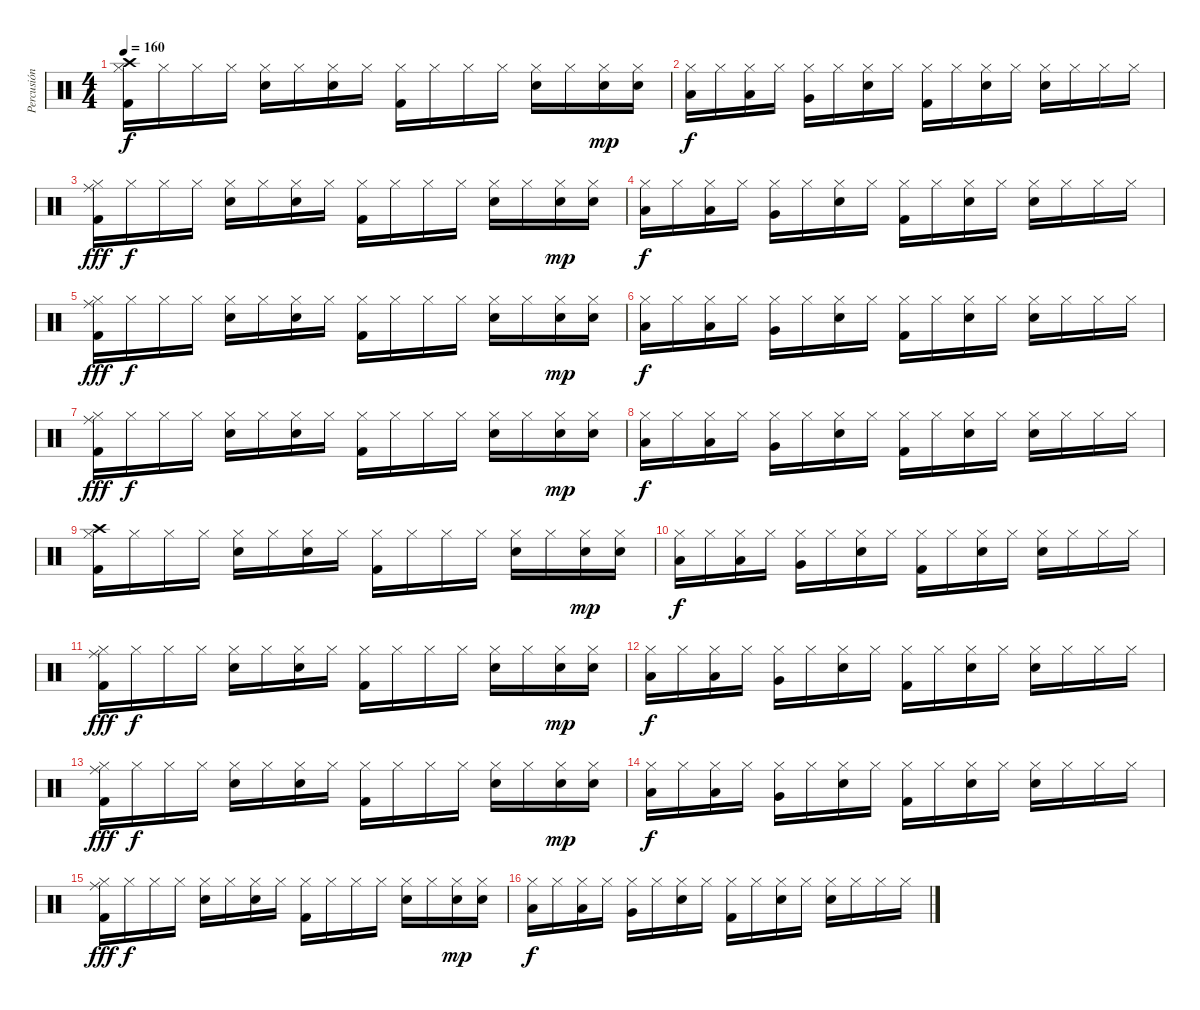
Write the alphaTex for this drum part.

\track ("Percusión" "Percusión") {instrument percussion}
\staff {score}
\articulation defaults
\ts (4 4)
\tempo 160
\clef neutral
\ks c
("Crash high (hit)" "Hi-Hat (closed)" "Kick (hit) 2").16{dy f} "Hi-Hat (closed)".16 "Hi-Hat (closed)".16 "Hi-Hat (closed)".16 ("Hi-Hat (closed)" "Snare (hit) 2").16 "Hi-Hat (closed)".16 ("Hi-Hat (closed)" "Snare (hit) 2").16 "Hi-Hat (closed)".16 ("Hi-Hat (closed)" "Kick (hit) 2").16 "Hi-Hat (closed)".16 "Hi-Hat (closed)".16 "Hi-Hat (closed)".16 ("Hi-Hat (closed)" "Snare (hit) 2").16 "Hi-Hat (closed)".16 ("Hi-Hat (closed)" "Snare (hit) 2").16{dy mp} ("Hi-Hat (closed)" "Snare (hit) 2").16 |
("Hi-Hat (closed)" "Low Floor Tom (hit)").16{dy f} "Hi-Hat (closed)".16 ("Hi-Hat (closed)" "Low Tom (hit)").16 "Hi-Hat (closed)".16 ("Hi-Hat (closed)" "Very Low Tom (hit)").16 "Hi-Hat (closed)".16 ("Hi-Hat (closed)" "Snare (hit) 2").16 "Hi-Hat (closed)".16 ("Hi-Hat (closed)" "Kick (hit) 2").16 "Hi-Hat (closed)".16 ("Hi-Hat (closed)" "Snare (hit) 2").16 "Hi-Hat (closed)".16 ("Hi-Hat (closed)" "Snare (hit) 2").16 "Hi-Hat (closed)".16 "Hi-Hat (closed)".16 "Hi-Hat (closed)".16 |
("Ride (middle)" "Hi-Hat (closed)" "Kick (hit) 2").16{dy fff} "Hi-Hat (closed)".16{dy f} "Hi-Hat (closed)".16 "Hi-Hat (closed)".16 ("Hi-Hat (closed)" "Snare (hit) 2").16 "Hi-Hat (closed)".16 ("Hi-Hat (closed)" "Snare (hit) 2").16 "Hi-Hat (closed)".16 ("Hi-Hat (closed)" "Kick (hit) 2").16 "Hi-Hat (closed)".16 "Hi-Hat (closed)".16 "Hi-Hat (closed)".16 ("Hi-Hat (closed)" "Snare (hit) 2").16 "Hi-Hat (closed)".16 ("Hi-Hat (closed)" "Snare (hit) 2").16{dy mp} ("Hi-Hat (closed)" "Snare (hit) 2").16 |
("Hi-Hat (closed)" "Low Floor Tom (hit)").16{dy f} "Hi-Hat (closed)".16 ("Hi-Hat (closed)" "Low Tom (hit)").16 "Hi-Hat (closed)".16 ("Hi-Hat (closed)" "Very Low Tom (hit)").16 "Hi-Hat (closed)".16 ("Hi-Hat (closed)" "Snare (hit) 2").16 "Hi-Hat (closed)".16 ("Hi-Hat (closed)" "Kick (hit) 2").16 "Hi-Hat (closed)".16 ("Hi-Hat (closed)" "Snare (hit) 2").16 "Hi-Hat (closed)".16 ("Hi-Hat (closed)" "Snare (hit) 2").16 "Hi-Hat (closed)".16 "Hi-Hat (closed)".16 "Hi-Hat (closed)".16 |
("Ride (middle)" "Hi-Hat (closed)" "Kick (hit) 2").16{dy fff} "Hi-Hat (closed)".16{dy f} "Hi-Hat (closed)".16 "Hi-Hat (closed)".16 ("Hi-Hat (closed)" "Snare (hit) 2").16 "Hi-Hat (closed)".16 ("Hi-Hat (closed)" "Snare (hit) 2").16 "Hi-Hat (closed)".16 ("Hi-Hat (closed)" "Kick (hit) 2").16 "Hi-Hat (closed)".16 "Hi-Hat (closed)".16 "Hi-Hat (closed)".16 ("Hi-Hat (closed)" "Snare (hit) 2").16 "Hi-Hat (closed)".16 ("Hi-Hat (closed)" "Snare (hit) 2").16{dy mp} ("Hi-Hat (closed)" "Snare (hit) 2").16 |
("Hi-Hat (closed)" "Low Floor Tom (hit)").16{dy f} "Hi-Hat (closed)".16 ("Hi-Hat (closed)" "Low Tom (hit)").16 "Hi-Hat (closed)".16 ("Hi-Hat (closed)" "Very Low Tom (hit)").16 "Hi-Hat (closed)".16 ("Hi-Hat (closed)" "Snare (hit) 2").16 "Hi-Hat (closed)".16 ("Hi-Hat (closed)" "Kick (hit) 2").16 "Hi-Hat (closed)".16 ("Hi-Hat (closed)" "Snare (hit) 2").16 "Hi-Hat (closed)".16 ("Hi-Hat (closed)" "Snare (hit) 2").16 "Hi-Hat (closed)".16 "Hi-Hat (closed)".16 "Hi-Hat (closed)".16 |
("Ride (middle)" "Hi-Hat (closed)" "Kick (hit) 2").16{dy fff} "Hi-Hat (closed)".16{dy f} "Hi-Hat (closed)".16 "Hi-Hat (closed)".16 ("Hi-Hat (closed)" "Snare (hit) 2").16 "Hi-Hat (closed)".16 ("Hi-Hat (closed)" "Snare (hit) 2").16 "Hi-Hat (closed)".16 ("Hi-Hat (closed)" "Kick (hit) 2").16 "Hi-Hat (closed)".16 "Hi-Hat (closed)".16 "Hi-Hat (closed)".16 ("Hi-Hat (closed)" "Snare (hit) 2").16 "Hi-Hat (closed)".16 ("Hi-Hat (closed)" "Snare (hit) 2").16{dy mp} ("Hi-Hat (closed)" "Snare (hit) 2").16 |
("Hi-Hat (closed)" "Low Floor Tom (hit)").16{dy f} "Hi-Hat (closed)".16 ("Hi-Hat (closed)" "Low Tom (hit)").16 "Hi-Hat (closed)".16 ("Hi-Hat (closed)" "Very Low Tom (hit)").16 "Hi-Hat (closed)".16 ("Hi-Hat (closed)" "Snare (hit) 2").16 "Hi-Hat (closed)".16 ("Hi-Hat (closed)" "Kick (hit) 2").16 "Hi-Hat (closed)".16 ("Hi-Hat (closed)" "Snare (hit) 2").16 "Hi-Hat (closed)".16 ("Hi-Hat (closed)" "Snare (hit) 2").16 "Hi-Hat (closed)".16 "Hi-Hat (closed)".16 "Hi-Hat (closed)".16 |
("Crash high (hit)" "Hi-Hat (closed)" "Kick (hit) 2").16{volume 8} "Hi-Hat (closed)".16 "Hi-Hat (closed)".16 "Hi-Hat (closed)".16 ("Hi-Hat (closed)" "Snare (hit) 2").16 "Hi-Hat (closed)".16 ("Hi-Hat (closed)" "Snare (hit) 2").16 "Hi-Hat (closed)".16 ("Hi-Hat (closed)" "Kick (hit) 2").16 "Hi-Hat (closed)".16 "Hi-Hat (closed)".16 "Hi-Hat (closed)".16 ("Hi-Hat (closed)" "Snare (hit) 2").16 "Hi-Hat (closed)".16 ("Hi-Hat (closed)" "Snare (hit) 2").16{dy mp} ("Hi-Hat (closed)" "Snare (hit) 2").16 |
("Hi-Hat (closed)" "Low Floor Tom (hit)").16{dy f} "Hi-Hat (closed)".16 ("Hi-Hat (closed)" "Low Tom (hit)").16 "Hi-Hat (closed)".16 ("Hi-Hat (closed)" "Very Low Tom (hit)").16 "Hi-Hat (closed)".16 ("Hi-Hat (closed)" "Snare (hit) 2").16 "Hi-Hat (closed)".16 ("Hi-Hat (closed)" "Kick (hit) 2").16 "Hi-Hat (closed)".16 ("Hi-Hat (closed)" "Snare (hit) 2").16 "Hi-Hat (closed)".16 ("Hi-Hat (closed)" "Snare (hit) 2").16 "Hi-Hat (closed)".16 "Hi-Hat (closed)".16 "Hi-Hat (closed)".16 |
("Ride (middle)" "Hi-Hat (closed)" "Kick (hit) 2").16{dy fff} "Hi-Hat (closed)".16{dy f} "Hi-Hat (closed)".16 "Hi-Hat (closed)".16 ("Hi-Hat (closed)" "Snare (hit) 2").16 "Hi-Hat (closed)".16 ("Hi-Hat (closed)" "Snare (hit) 2").16 "Hi-Hat (closed)".16 ("Hi-Hat (closed)" "Kick (hit) 2").16 "Hi-Hat (closed)".16 "Hi-Hat (closed)".16 "Hi-Hat (closed)".16 ("Hi-Hat (closed)" "Snare (hit) 2").16 "Hi-Hat (closed)".16 ("Hi-Hat (closed)" "Snare (hit) 2").16{dy mp} ("Hi-Hat (closed)" "Snare (hit) 2").16 |
("Hi-Hat (closed)" "Low Floor Tom (hit)").16{dy f} "Hi-Hat (closed)".16 ("Hi-Hat (closed)" "Low Tom (hit)").16 "Hi-Hat (closed)".16 ("Hi-Hat (closed)" "Very Low Tom (hit)").16 "Hi-Hat (closed)".16 ("Hi-Hat (closed)" "Snare (hit) 2").16 "Hi-Hat (closed)".16 ("Hi-Hat (closed)" "Kick (hit) 2").16 "Hi-Hat (closed)".16 ("Hi-Hat (closed)" "Snare (hit) 2").16 "Hi-Hat (closed)".16 ("Hi-Hat (closed)" "Snare (hit) 2").16 "Hi-Hat (closed)".16 "Hi-Hat (closed)".16 "Hi-Hat (closed)".16 |
("Ride (middle)" "Hi-Hat (closed)" "Kick (hit) 2").16{dy fff volume 0} "Hi-Hat (closed)".16{dy f} "Hi-Hat (closed)".16 "Hi-Hat (closed)".16 ("Hi-Hat (closed)" "Snare (hit) 2").16 "Hi-Hat (closed)".16 ("Hi-Hat (closed)" "Snare (hit) 2").16 "Hi-Hat (closed)".16 ("Hi-Hat (closed)" "Kick (hit) 2").16 "Hi-Hat (closed)".16 "Hi-Hat (closed)".16 "Hi-Hat (closed)".16 ("Hi-Hat (closed)" "Snare (hit) 2").16 "Hi-Hat (closed)".16 ("Hi-Hat (closed)" "Snare (hit) 2").16{dy mp} ("Hi-Hat (closed)" "Snare (hit) 2").16 |
("Hi-Hat (closed)" "Low Floor Tom (hit)").16{dy f} "Hi-Hat (closed)".16 ("Hi-Hat (closed)" "Low Tom (hit)").16 "Hi-Hat (closed)".16 ("Hi-Hat (closed)" "Very Low Tom (hit)").16 "Hi-Hat (closed)".16 ("Hi-Hat (closed)" "Snare (hit) 2").16 "Hi-Hat (closed)".16 ("Hi-Hat (closed)" "Kick (hit) 2").16 "Hi-Hat (closed)".16 ("Hi-Hat (closed)" "Snare (hit) 2").16 "Hi-Hat (closed)".16 ("Hi-Hat (closed)" "Snare (hit) 2").16 "Hi-Hat (closed)".16 "Hi-Hat (closed)".16 "Hi-Hat (closed)".16 |
("Ride (middle)" "Hi-Hat (closed)" "Kick (hit) 2").16{dy fff} "Hi-Hat (closed)".16{dy f} "Hi-Hat (closed)".16 "Hi-Hat (closed)".16 ("Hi-Hat (closed)" "Snare (hit) 2").16 "Hi-Hat (closed)".16 ("Hi-Hat (closed)" "Snare (hit) 2").16 "Hi-Hat (closed)".16 ("Hi-Hat (closed)" "Kick (hit) 2").16 "Hi-Hat (closed)".16 "Hi-Hat (closed)".16 "Hi-Hat (closed)".16 ("Hi-Hat (closed)" "Snare (hit) 2").16 "Hi-Hat (closed)".16 ("Hi-Hat (closed)" "Snare (hit) 2").16{dy mp} ("Hi-Hat (closed)" "Snare (hit) 2").16 |
("Hi-Hat (closed)" "Low Floor Tom (hit)").16{dy f} "Hi-Hat (closed)".16 ("Hi-Hat (closed)" "Low Tom (hit)").16 "Hi-Hat (closed)".16 ("Hi-Hat (closed)" "Very Low Tom (hit)").16 "Hi-Hat (closed)".16 ("Hi-Hat (closed)" "Snare (hit) 2").16 "Hi-Hat (closed)".16 ("Hi-Hat (closed)" "Kick (hit) 2").16 "Hi-Hat (closed)".16 ("Hi-Hat (closed)" "Snare (hit) 2").16 "Hi-Hat (closed)".16 ("Hi-Hat (closed)" "Snare (hit) 2").16 "Hi-Hat (closed)".16 "Hi-Hat (closed)".16 "Hi-Hat (closed)".16
